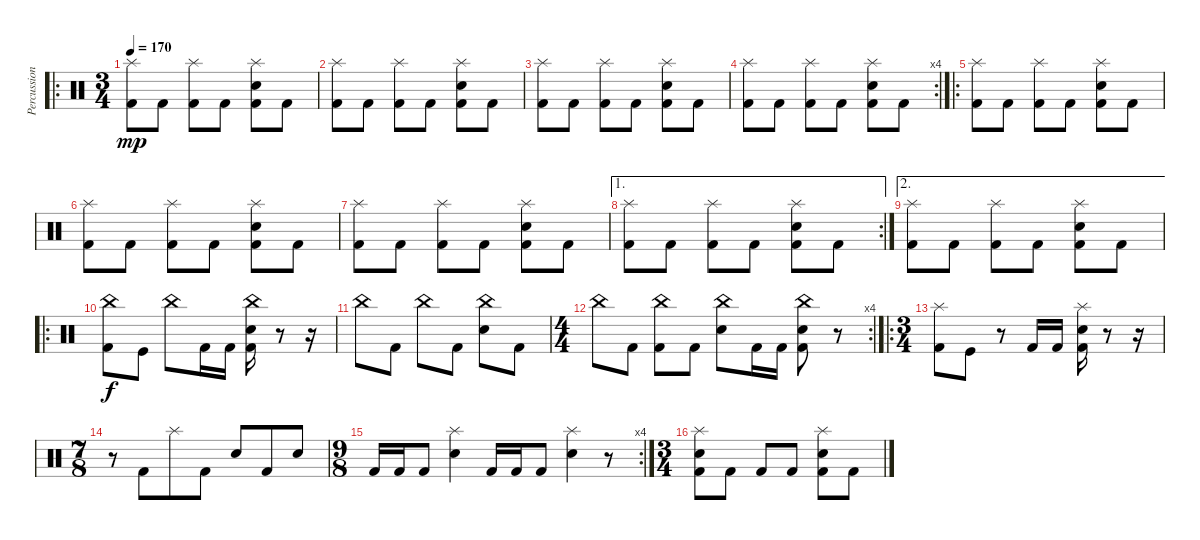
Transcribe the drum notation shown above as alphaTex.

\track ("Percussion" "Percussion") {instrument percussion}
\staff {score}
\articulation defaults
\ro
\ts (3 4)
\tempo 170
\clef neutral
\ks c
("Splash (hit)" "Kick (hit) 2").8{dy mp} "Kick (hit) 2".8 ("Splash (hit)" "Kick (hit) 2").8 "Kick (hit) 2".8 ("Splash (hit)" "Electric Snare (hit)" "Kick (hit) 2").8 "Kick (hit) 2".8 |
("Splash (hit)" "Kick (hit) 2").8 "Kick (hit) 2".8 ("Splash (hit)" "Kick (hit) 2").8 "Kick (hit) 2".8 ("Splash (hit)" "Electric Snare (hit)" "Kick (hit) 2").8 "Kick (hit) 2".8 |
("Splash (hit)" "Kick (hit) 2").8 "Kick (hit) 2".8 ("Splash (hit)" "Kick (hit) 2").8 "Kick (hit) 2".8 ("Splash (hit)" "Electric Snare (hit)" "Kick (hit) 2").8 "Kick (hit) 2".8 |
\rc 4
("Splash (hit)" "Kick (hit) 2").8 "Kick (hit) 2".8 ("Splash (hit)" "Kick (hit) 2").8 "Kick (hit) 2".8 ("Splash (hit)" "Electric Snare (hit)" "Kick (hit) 2").8 "Kick (hit) 2".8 |
\ro
("Splash (hit)" "Kick (hit) 2").8 "Kick (hit) 2".8 ("Splash (hit)" "Kick (hit) 2").8 "Kick (hit) 2".8 ("Splash (hit)" "Electric Snare (hit)" "Kick (hit) 2").8 "Kick (hit) 2".8 |
("Splash (hit)" "Kick (hit) 2").8 "Kick (hit) 2".8 ("Splash (hit)" "Kick (hit) 2").8 "Kick (hit) 2".8 ("Splash (hit)" "Electric Snare (hit)" "Kick (hit) 2").8 "Kick (hit) 2".8 |
("Splash (hit)" "Kick (hit) 2").8 "Kick (hit) 2".8 ("Splash (hit)" "Kick (hit) 2").8 "Kick (hit) 2".8 ("Splash (hit)" "Electric Snare (hit)" "Kick (hit) 2").8 "Kick (hit) 2".8 |
\ae 1
\rc 2
("Splash (hit)" "Kick (hit) 2").8 "Kick (hit) 2".8 ("Splash (hit)" "Kick (hit) 2").8 "Kick (hit) 2".8 ("Splash (hit)" "Electric Snare (hit)" "Kick (hit) 2").8 "Kick (hit) 2".8 |
\ae 2
("Splash (hit)" "Kick (hit) 2").8 "Kick (hit) 2".8 ("Splash (hit)" "Kick (hit) 2").8 "Kick (hit) 2".8 ("Splash (hit)" "Electric Snare (hit)" "Kick (hit) 2").8 "Kick (hit) 2".8 |
\ro
("China (hit)" "Kick (hit) 2").8{dy f} "Kick (hit)".8 "China (hit)".8 "Kick (hit) 2".16 "Kick (hit) 2".16 ("China (hit)" "Electric Snare (hit)" "Kick (hit) 2").16 r.8 r.16 |
"China (hit)".8 "Kick (hit) 2".8 "China (hit)".8 "Kick (hit) 2".8 ("China (hit)" "Electric Snare (hit)").8 "Kick (hit) 2".8 |
\rc 4
\ts (4 4)
"China (hit)".8 "Kick (hit) 2".8 ("China (hit)" "Kick (hit) 2").8 "Kick (hit) 2".8 ("China (hit)" "Electric Snare (hit)").8 "Kick (hit) 2".16 "Kick (hit) 2".16 ("China (hit)" "Electric Snare (hit)" "Kick (hit) 2").8 r.8 |
\ro
\ts (3 4)
("Splash (hit)" "Kick (hit) 2").8 "Kick (hit)".8 r.8 "Kick (hit) 2".16 "Kick (hit) 2".16 ("Splash (hit)" "Electric Snare (hit)" "Kick (hit) 2").16 r.8 r.16 |
\ts (7 8)
r.8 "Kick (hit) 2".8 "Splash (hit)".8 "Kick (hit) 2".8 "Electric Snare (hit)".8 "Kick (hit) 2".8 "Electric Snare (hit)".8 |
\rc 4
\ts (9 8)
"Kick (hit) 2".16 "Kick (hit) 2".16 "Kick (hit) 2".8 ("Splash (hit)" "Electric Snare (hit)").4 "Kick (hit) 2".16 "Kick (hit) 2".16 "Kick (hit) 2".8 ("Splash (hit)" "Electric Snare (hit)").4 r.8 |
\ts (3 4)
("Splash (hit)" "Electric Snare (hit)" "Kick (hit) 2").8 "Kick (hit) 2".8 "Kick (hit) 2".8 "Kick (hit) 2".8 ("Splash (hit)" "Electric Snare (hit)" "Kick (hit) 2").8 "Kick (hit) 2".8
